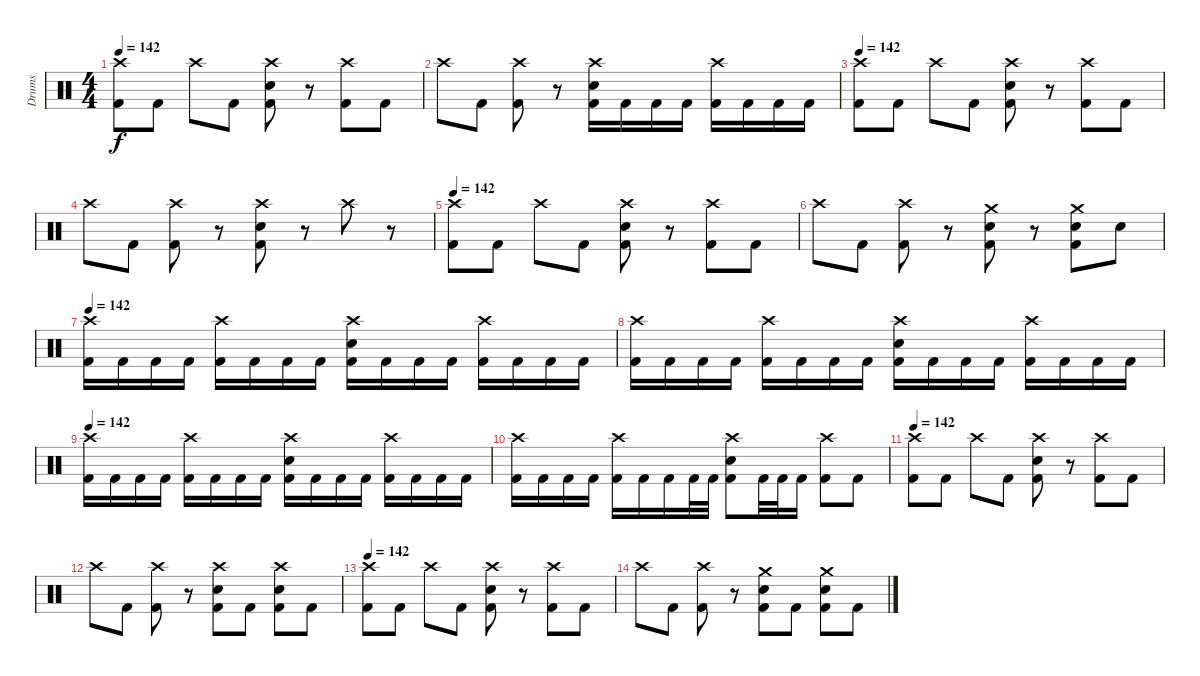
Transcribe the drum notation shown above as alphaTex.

\track ("Drums" "Drums") {instrument percussion}
\staff
\articulation defaults
\ts (4 4)
\tempo 142
\clef neutral
\ks c
("Crash high (hit)" "Kick (hit) 2").8{dy f} "Kick (hit) 2".8 "Crash high (hit)".8 "Kick (hit) 2".8 ("Crash high (hit)" "Snare (hit) 2" "Kick (hit) 2").8 r.8 ("Crash high (hit)" "Kick (hit) 2").8 "Kick (hit) 2".8 |
"Crash high (hit)".8 "Kick (hit) 2".8 ("Crash high (hit)" "Kick (hit) 2").8 r.8 ("Crash high (hit)" "Snare (hit) 2" "Kick (hit) 2").16 "Kick (hit) 2".16 "Kick (hit) 2".16 "Kick (hit) 2".16 ("Crash high (hit)" "Kick (hit) 2").16 "Kick (hit) 2".16 "Kick (hit) 2".16 "Kick (hit) 2".16 |
\tempo 142
("Crash high (hit)" "Kick (hit) 2").8 "Kick (hit) 2".8 "Crash high (hit)".8 "Kick (hit) 2".8 ("Crash high (hit)" "Snare (hit) 2" "Kick (hit) 2").8 r.8 ("Crash high (hit)" "Kick (hit) 2").8 "Kick (hit) 2".8 |
"Crash high (hit)".8 "Kick (hit) 2".8 ("Crash high (hit)" "Kick (hit) 2").8 r.8 ("Crash high (hit)" "Snare (hit) 2" "Kick (hit) 2").8 r.8 "Crash high (hit)".8 r.8 |
\tempo 142
("Crash high (hit)" "Kick (hit) 2").8 "Kick (hit) 2".8 "Crash high (hit)".8 "Kick (hit) 2".8 ("Crash high (hit)" "Snare (hit) 2" "Kick (hit) 2").8 r.8 ("Crash high (hit)" "Kick (hit) 2").8 "Kick (hit) 2".8 |
"Crash high (hit)".8 "Kick (hit) 2".8 ("Crash high (hit)" "Kick (hit) 2").8 r.8 ("Crash medium (hit)" "Snare (hit) 2" "Kick (hit) 2").8 r.8 ("Crash medium (hit)" "Snare (hit) 2" "Kick (hit) 2").8 "Snare (hit) 2".8 |
\tempo 142
("Crash high (hit)" "Kick (hit) 2").16 "Kick (hit) 2".16 "Kick (hit) 2".16 "Kick (hit) 2".16 ("Crash high (hit)" "Kick (hit) 2").16 "Kick (hit) 2".16 "Kick (hit) 2".16 "Kick (hit) 2".16 ("Crash high (hit)" "Snare (hit) 2" "Kick (hit) 2").16 "Kick (hit) 2".16 "Kick (hit) 2".16 "Kick (hit) 2".16 ("Crash high (hit)" "Kick (hit) 2").16 "Kick (hit) 2".16 "Kick (hit) 2".16 "Kick (hit) 2".16 |
("Crash high (hit)" "Kick (hit) 2").16 "Kick (hit) 2".16 "Kick (hit) 2".16 "Kick (hit) 2".16 ("Crash high (hit)" "Kick (hit) 2").16 "Kick (hit) 2".16 "Kick (hit) 2".16 "Kick (hit) 2".16 ("Crash high (hit)" "Snare (hit) 2" "Kick (hit) 2").16 "Kick (hit) 2".16 "Kick (hit) 2".16 "Kick (hit) 2".16 ("Crash high (hit)" "Kick (hit) 2").16 "Kick (hit) 2".16 "Kick (hit) 2".16 "Kick (hit) 2".16 |
\tempo 142
("Crash high (hit)" "Kick (hit) 2").16 "Kick (hit) 2".16 "Kick (hit) 2".16 "Kick (hit) 2".16 ("Crash high (hit)" "Kick (hit) 2").16 "Kick (hit) 2".16 "Kick (hit) 2".16 "Kick (hit) 2".16 ("Crash high (hit)" "Snare (hit) 2" "Kick (hit) 2").16 "Kick (hit) 2".16 "Kick (hit) 2".16 "Kick (hit) 2".16 ("Crash high (hit)" "Kick (hit) 2").16 "Kick (hit) 2".16 "Kick (hit) 2".16 "Kick (hit) 2".16 |
("Crash high (hit)" "Kick (hit) 2").16 "Kick (hit) 2".16 "Kick (hit) 2".16 "Kick (hit) 2".16 ("Crash high (hit)" "Kick (hit) 2").16 "Kick (hit) 2".16 "Kick (hit) 2".16 "Kick (hit) 2".32 "Kick (hit) 2".32 ("Crash high (hit)" "Snare (hit) 2" "Kick (hit) 2").8 "Kick (hit) 2".32 "Kick (hit) 2".32 "Kick (hit) 2".16 ("Crash high (hit)" "Kick (hit) 2").8 "Kick (hit) 2".8 |
\tempo 142
("Crash high (hit)" "Kick (hit) 2").8 "Kick (hit) 2".8 "Crash high (hit)".8 "Kick (hit) 2".8 ("Crash high (hit)" "Snare (hit) 2" "Kick (hit) 2").8 r.8 ("Crash high (hit)" "Kick (hit) 2").8 "Kick (hit) 2".8 |
"Crash high (hit)".8 "Kick (hit) 2".8 ("Crash high (hit)" "Kick (hit) 2").8 r.8 ("Crash high (hit)" "Snare (hit) 2" "Kick (hit) 2").8 "Kick (hit) 2".8 ("Crash high (hit)" "Snare (hit) 2" "Kick (hit) 2").8 "Kick (hit) 2".8 |
\tempo 142
("Crash high (hit)" "Kick (hit) 2").8 "Kick (hit) 2".8 "Crash high (hit)".8 "Kick (hit) 2".8 ("Crash high (hit)" "Snare (hit) 2" "Kick (hit) 2").8 r.8 ("Crash high (hit)" "Kick (hit) 2").8 "Kick (hit) 2".8 |
"Crash high (hit)".8 "Kick (hit) 2".8 ("Crash high (hit)" "Kick (hit) 2").8 r.8 ("Crash medium (hit)" "Snare (hit) 2" "Kick (hit) 2").8 "Kick (hit) 2".8 ("Crash medium (hit)" "Snare (hit) 2" "Kick (hit) 2").8 "Kick (hit) 2".8
